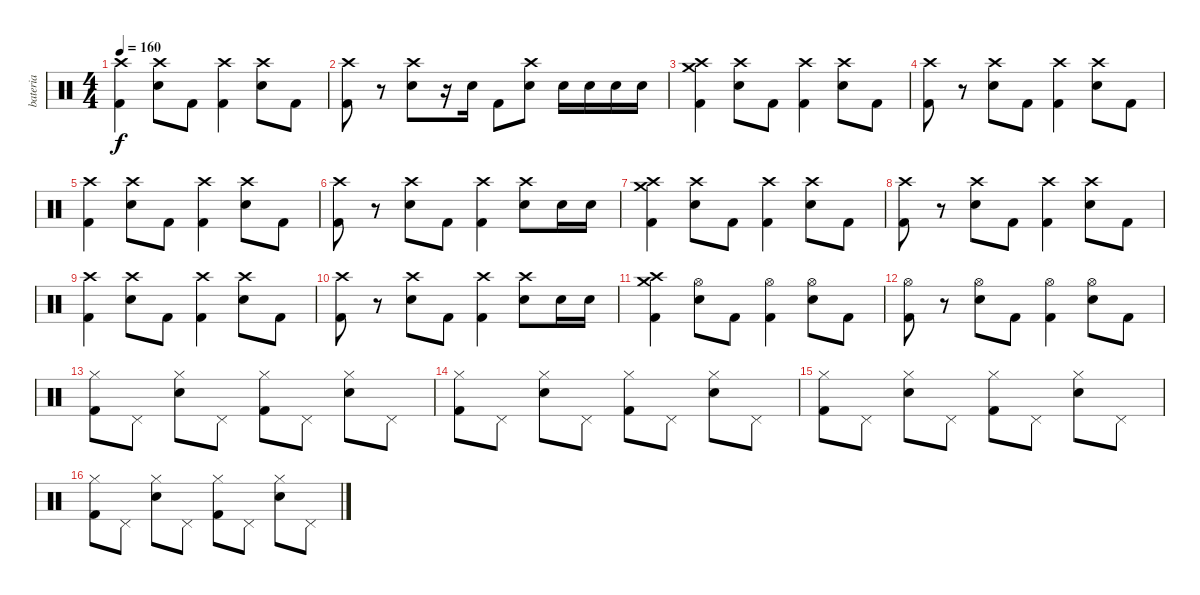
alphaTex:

\track ("bateria" "bateria") {instrument percussion}
\staff {score}
\articulation defaults
\ts (4 4)
\tempo 160
\clef neutral
\ks c
("Crash high (hit)" "Kick (hit) 2").4{dy f} ("Crash high (hit)" "Snare (hit) 2").8 "Kick (hit) 2".8 ("Crash high (hit)" "Kick (hit) 2").4 ("Crash high (hit)" "Snare (hit) 2").8 "Kick (hit) 2".8 |
("Crash high (hit)" "Kick (hit) 2").8 r.8 ("Crash high (hit)" "Snare (hit) 2").8 r.16 "Snare (hit) 2".16 "Kick (hit) 2".8 ("Crash high (hit)" "Snare (hit) 2").8 "Snare (hit) 2".16 "Snare (hit) 2".16 "Snare (hit) 2".16 "Snare (hit) 2".16 |
("Crash medium (hit)" "Crash high (hit)" "Kick (hit) 2").4 ("Crash high (hit)" "Snare (hit) 2").8 "Kick (hit) 2".8 ("Crash high (hit)" "Kick (hit) 2").4 ("Crash high (hit)" "Snare (hit) 2").8 "Kick (hit) 2".8 |
("Crash high (hit)" "Kick (hit) 2").8 r.8 ("Crash high (hit)" "Snare (hit) 2").8 "Kick (hit) 2".8 ("Crash high (hit)" "Kick (hit) 2").4 ("Crash high (hit)" "Snare (hit) 2").8 "Kick (hit) 2".8 |
("Crash high (hit)" "Kick (hit) 2").4 ("Crash high (hit)" "Snare (hit) 2").8 "Kick (hit) 2".8 ("Crash high (hit)" "Kick (hit) 2").4 ("Crash high (hit)" "Snare (hit) 2").8 "Kick (hit) 2".8 |
("Crash high (hit)" "Kick (hit) 2").8 r.8 ("Crash high (hit)" "Snare (hit) 2").8 "Kick (hit) 2".8 ("Crash high (hit)" "Kick (hit) 2").4 ("Crash high (hit)" "Snare (hit) 2").8 "Snare (hit) 2".16 "Snare (hit) 2".16 |
("Crash medium (hit)" "Crash high (hit)" "Kick (hit) 2").4 ("Crash high (hit)" "Snare (hit) 2").8 "Kick (hit) 2".8 ("Crash high (hit)" "Kick (hit) 2").4 ("Crash high (hit)" "Snare (hit) 2").8 "Kick (hit) 2".8 |
("Crash high (hit)" "Kick (hit) 2").8 r.8 ("Crash high (hit)" "Snare (hit) 2").8 "Kick (hit) 2".8 ("Crash high (hit)" "Kick (hit) 2").4 ("Crash high (hit)" "Snare (hit) 2").8 "Kick (hit) 2".8 |
("Crash high (hit)" "Kick (hit) 2").4 ("Crash high (hit)" "Snare (hit) 2").8 "Kick (hit) 2".8 ("Crash high (hit)" "Kick (hit) 2").4 ("Crash high (hit)" "Snare (hit) 2").8 "Kick (hit) 2".8 |
("Crash high (hit)" "Kick (hit) 2").8 r.8 ("Crash high (hit)" "Snare (hit) 2").8 "Kick (hit) 2".8 ("Crash high (hit)" "Kick (hit) 2").4 ("Crash high (hit)" "Snare (hit) 2").8 "Snare (hit) 2".16 "Snare (hit) 2".16 |
("Crash medium (hit)" "Crash high (hit)" "Kick (hit) 2").4 ("Hi-Hat (open)" "Snare (hit) 2").8 "Kick (hit) 2".8 ("Hi-Hat (open)" "Kick (hit) 2").4 ("Hi-Hat (open)" "Snare (hit) 2").8 "Kick (hit) 2".8 |
("Hi-Hat (open)" "Kick (hit) 2").8 r.8 ("Hi-Hat (open)" "Snare (hit) 2").8 "Kick (hit) 2".8 ("Hi-Hat (open)" "Kick (hit) 2").4 ("Hi-Hat (open)" "Snare (hit) 2").8 "Kick (hit) 2".8 |
("Hi-Hat (closed)" "Kick (hit) 2").8 "Pedal Hi-Hat (hit)".8 ("Hi-Hat (closed)" "Snare (hit) 2").8 "Pedal Hi-Hat (hit)".8 ("Hi-Hat (closed)" "Kick (hit) 2").8 "Pedal Hi-Hat (hit)".8 ("Hi-Hat (closed)" "Snare (hit) 2").8 "Pedal Hi-Hat (hit)".8 |
("Hi-Hat (closed)" "Kick (hit) 2").8 "Pedal Hi-Hat (hit)".8 ("Hi-Hat (closed)" "Snare (hit) 2").8 "Pedal Hi-Hat (hit)".8 ("Hi-Hat (closed)" "Kick (hit) 2").8 "Pedal Hi-Hat (hit)".8 ("Hi-Hat (closed)" "Snare (hit) 2").8 "Pedal Hi-Hat (hit)".8 |
("Hi-Hat (closed)" "Kick (hit) 2").8 "Pedal Hi-Hat (hit)".8 ("Hi-Hat (closed)" "Snare (hit) 2").8 "Pedal Hi-Hat (hit)".8 ("Hi-Hat (closed)" "Kick (hit) 2").8 "Pedal Hi-Hat (hit)".8 ("Hi-Hat (closed)" "Snare (hit) 2").8 "Pedal Hi-Hat (hit)".8 |
("Hi-Hat (closed)" "Kick (hit) 2").8 "Pedal Hi-Hat (hit)".8 ("Hi-Hat (closed)" "Snare (hit) 2").8 "Pedal Hi-Hat (hit)".8 ("Hi-Hat (closed)" "Kick (hit) 2").8 "Pedal Hi-Hat (hit)".8 ("Hi-Hat (closed)" "Snare (hit) 2").8 "Pedal Hi-Hat (hit)".8
